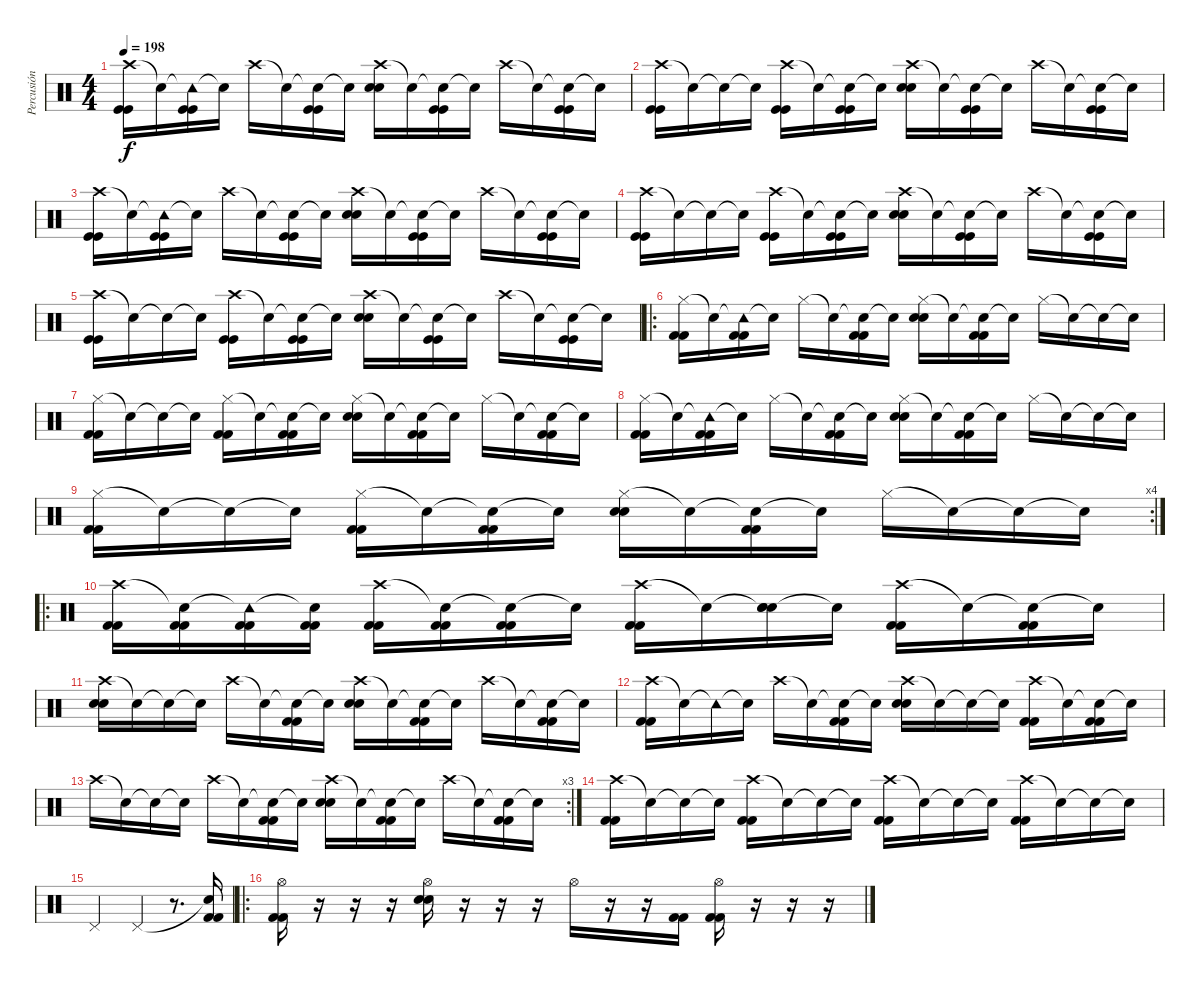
\track ("Percusión" "Percusión") {instrument percussion}
\staff {score}
\articulation defaults
\ts (4 4)
\tempo 198
\clef neutral
\ks c
("Crash high (hit)" "Kick (hit)" "Kick (hit)").16{dy f} "Snare (hit)"{t}.16 ("Tambourine (hit)"{t} "Kick (hit)" "Kick (hit)").16 "Snare (hit)"{t}.16 "Crash high (hit)".16 "Snare (hit)"{t}.16 ("Snare (hit)"{t} "Kick (hit)" "Kick (hit)").16 "Snare (hit)"{t}.16 ("Crash high (hit)" "Snare (hit) 2" "Snare (hit) 2").16 "Snare (hit)"{t}.16 ("Snare (hit)"{t} "Kick (hit)" "Kick (hit)").16 "Snare (hit)"{t}.16 "Crash high (hit)".16 "Snare (hit)"{t}.16 ("Snare (hit)"{t} "Kick (hit)" "Kick (hit)").16 "Snare (hit)"{t}.16 |
("Crash high (hit)" "Kick (hit)" "Kick (hit)").16 "Snare (hit)"{t}.16 "Snare (hit)"{t}.16 "Snare (hit)"{t}.16 ("Crash high (hit)" "Kick (hit)" "Kick (hit)").16 "Snare (hit)"{t}.16 ("Snare (hit)"{t} "Kick (hit)" "Kick (hit)").16 "Snare (hit)"{t}.16 ("Crash high (hit)" "Snare (hit) 2" "Snare (hit) 2").16 "Snare (hit)"{t}.16 ("Snare (hit)"{t} "Kick (hit)" "Kick (hit)").16 "Snare (hit)"{t}.16 "Crash high (hit)".16 "Snare (hit)"{t}.16 ("Snare (hit)"{t} "Kick (hit)" "Kick (hit)").16 "Snare (hit)"{t}.16 |
("Crash high (hit)" "Kick (hit)" "Kick (hit)").16 "Snare (hit)"{t}.16 ("Tambourine (hit)"{t} "Kick (hit)" "Kick (hit)").16 "Snare (hit)"{t}.16 "Crash high (hit)".16 "Snare (hit)"{t}.16 ("Snare (hit)"{t} "Kick (hit)" "Kick (hit)").16 "Snare (hit)"{t}.16 ("Crash high (hit)" "Snare (hit) 2" "Snare (hit) 2").16 "Snare (hit)"{t}.16 ("Snare (hit)"{t} "Kick (hit)" "Kick (hit)").16 "Snare (hit)"{t}.16 "Crash high (hit)".16 "Snare (hit)"{t}.16 ("Snare (hit)"{t} "Kick (hit)" "Kick (hit)").16 "Snare (hit)"{t}.16 |
("Crash high (hit)" "Kick (hit)" "Kick (hit)").16 "Snare (hit)"{t}.16 "Snare (hit)"{t}.16 "Snare (hit)"{t}.16 ("Crash high (hit)" "Kick (hit)" "Kick (hit)").16 "Snare (hit)"{t}.16 ("Snare (hit)"{t} "Kick (hit)" "Kick (hit)").16 "Snare (hit)"{t}.16 ("Crash high (hit)" "Snare (hit) 2" "Snare (hit) 2").16 "Snare (hit)"{t}.16 ("Snare (hit)"{t} "Kick (hit)" "Kick (hit)").16 "Snare (hit)"{t}.16 "Crash high (hit)".16 "Snare (hit)"{t}.16 ("Snare (hit)"{t} "Kick (hit)" "Kick (hit)").16 "Snare (hit)"{t}.16 |
("Crash high (hit)" "Kick (hit)" "Kick (hit)").16 "Snare (hit)"{t}.16 "Snare (hit)"{t}.16 "Snare (hit)"{t}.16 ("Crash high (hit)" "Kick (hit)" "Kick (hit)").16 "Snare (hit)"{t}.16 ("Snare (hit)"{t} "Kick (hit)" "Kick (hit)").16 "Snare (hit)"{t}.16 ("Crash high (hit)" "Snare (hit) 2" "Snare (hit) 2").16 "Snare (hit)"{t}.16 ("Snare (hit)"{t} "Kick (hit)" "Kick (hit)").16 "Snare (hit)"{t}.16 "Crash high (hit)".16 "Snare (hit)"{t}.16 ("Snare (hit)"{t} "Kick (hit)" "Kick (hit)").16 "Snare (hit)"{t}.16 |
\ro
("Hi-Hat (closed)" "Kick (hit) 2" "Kick (hit) 2").16 "Snare (hit)"{t}.16 ("Tambourine (hit)"{t} "Kick (hit) 2" "Kick (hit) 2").16 "Snare (hit)"{t}.16 "Hi-Hat (closed)".16 "Snare (hit)"{t}.16 ("Snare (hit)"{t} "Kick (hit) 2" "Kick (hit) 2").16 "Snare (hit)"{t}.16 ("Hi-Hat (closed)" "Electric Snare (hit)" "Electric Snare (hit)").16 "Snare (hit)"{t}.16 ("Snare (hit)"{t} "Kick (hit) 2" "Kick (hit) 2").16 "Snare (hit)"{t}.16 "Hi-Hat (closed)".16 "Snare (hit)"{t}.16 "Snare (hit)"{t}.16 "Snare (hit)"{t}.16 |
("Hi-Hat (closed)" "Kick (hit) 2" "Kick (hit) 2").16 "Snare (hit)"{t}.16 "Snare (hit)"{t}.16 "Snare (hit)"{t}.16 ("Hi-Hat (closed)" "Kick (hit) 2" "Kick (hit) 2").16 "Snare (hit)"{t}.16 ("Snare (hit)"{t} "Kick (hit) 2" "Kick (hit) 2").16 "Snare (hit)"{t}.16 ("Hi-Hat (closed)" "Electric Snare (hit)" "Electric Snare (hit)").16 "Snare (hit)"{t}.16 ("Snare (hit)"{t} "Kick (hit) 2" "Kick (hit) 2").16 "Snare (hit)"{t}.16 "Hi-Hat (closed)".16 "Snare (hit)"{t}.16 ("Snare (hit)"{t} "Kick (hit) 2" "Kick (hit) 2").16 "Snare (hit)"{t}.16 |
("Hi-Hat (closed)" "Kick (hit) 2" "Kick (hit) 2").16 "Snare (hit)"{t}.16 ("Tambourine (hit)"{t} "Kick (hit) 2" "Kick (hit) 2").16 "Snare (hit)"{t}.16 "Hi-Hat (closed)".16 "Snare (hit)"{t}.16 ("Snare (hit)"{t} "Kick (hit) 2" "Kick (hit) 2").16 "Snare (hit)"{t}.16 ("Hi-Hat (closed)" "Electric Snare (hit)" "Electric Snare (hit)").16 "Snare (hit)"{t}.16 ("Snare (hit)"{t} "Kick (hit) 2" "Kick (hit) 2").16 "Snare (hit)"{t}.16 "Hi-Hat (closed)".16 "Snare (hit)"{t}.16 "Snare (hit)"{t}.16 "Snare (hit)"{t}.16 |
\rc 4
("Hi-Hat (closed)" "Kick (hit) 2" "Kick (hit) 2").16 "Snare (hit)"{t}.16 "Snare (hit)"{t}.16 "Snare (hit)"{t}.16 ("Hi-Hat (closed)" "Kick (hit) 2" "Kick (hit) 2").16 "Snare (hit)"{t}.16 ("Snare (hit)"{t} "Kick (hit) 2" "Kick (hit) 2").16 "Snare (hit)"{t}.16 ("Hi-Hat (closed)" "Electric Snare (hit)" "Electric Snare (hit)").16 "Snare (hit)"{t}.16 ("Snare (hit)"{t} "Kick (hit) 2" "Kick (hit) 2").16 "Snare (hit)"{t}.16 "Hi-Hat (closed)".16 "Snare (hit)"{t}.16 "Snare (hit)"{t}.16 "Snare (hit)"{t}.16 |
\ro
("Crash high (hit)" "Kick (hit) 2" "Kick (hit) 2").16 ("Snare (hit)"{t} "Kick (hit) 2" "Kick (hit) 2").16 ("Tambourine (hit)"{t} "Kick (hit) 2" "Kick (hit) 2").16 ("Snare (hit)"{t} "Kick (hit) 2" "Kick (hit) 2").16 ("Crash high (hit)" "Kick (hit) 2" "Kick (hit) 2").16 ("Snare (hit)"{t} "Kick (hit) 2" "Kick (hit) 2").16 ("Snare (hit)"{t} "Kick (hit) 2" "Kick (hit) 2").16 "Snare (hit)"{t}.16 ("Crash high (hit)" "Kick (hit) 2" "Kick (hit) 2").16 "Snare (hit)"{t}.16 ("Snare (hit)"{t} "Electric Snare (hit)" "Electric Snare (hit)").16 "Snare (hit)"{t}.16 ("Crash high (hit)" "Kick (hit) 2" "Kick (hit) 2").16 "Snare (hit)"{t}.16 ("Snare (hit)"{t} "Kick (hit) 2" "Kick (hit) 2").16 "Snare (hit)"{t}.16 |
("Crash high (hit)" "Electric Snare (hit)" "Electric Snare (hit)").16 "Snare (hit)"{t}.16 "Snare (hit)"{t}.16 "Snare (hit)"{t}.16 "Crash high (hit)".16 "Snare (hit)"{t}.16 ("Snare (hit)"{t} "Kick (hit) 2" "Kick (hit) 2").16 "Snare (hit)"{t}.16 ("Crash high (hit)" "Electric Snare (hit)" "Electric Snare (hit)").16 "Snare (hit)"{t}.16 ("Snare (hit)"{t} "Kick (hit) 2" "Kick (hit) 2").16 "Snare (hit)"{t}.16 "Crash high (hit)".16 "Snare (hit)"{t}.16 ("Snare (hit)"{t} "Kick (hit) 2" "Kick (hit) 2").16 "Snare (hit)"{t}.16 |
("Crash high (hit)" "Kick (hit) 2" "Kick (hit) 2").16 "Snare (hit)"{t}.16 "Tambourine (hit)"{t}.16 "Snare (hit)"{t}.16 "Crash high (hit)".16 "Snare (hit)"{t}.16 ("Snare (hit)"{t} "Kick (hit) 2" "Kick (hit) 2").16 "Snare (hit)"{t}.16 ("Crash high (hit)" "Electric Snare (hit)" "Electric Snare (hit)").16 "Snare (hit)"{t}.16 "Snare (hit)"{t}.16 "Snare (hit)"{t}.16 ("Crash high (hit)" "Kick (hit) 2" "Kick (hit) 2").16 "Snare (hit)"{t}.16 ("Snare (hit)"{t} "Kick (hit) 2" "Kick (hit) 2").16 "Snare (hit)"{t}.16 |
\rc 3 "Crash high (hit)".16 "Snare (hit)"{t}.16 "Snare (hit)"{t}.16 "Snare (hit)"{t}.16 "Crash high (hit)".16 "Snare (hit)"{t}.16
("Snare (hit)"{t} "Kick (hit) 2" "Kick (hit) 2").16 "Snare (hit)"{t}.16 ("Crash high (hit)" "Electric Snare (hit)" "Electric Snare (hit)").16 "Snare (hit)"{t}.16 ("Snare (hit)"{t} "Kick (hit) 2" "Kick (hit) 2").16 "Snare (hit)"{t}.16 "Crash high (hit)".16 "Snare (hit)"{t}.16 ("Snare (hit)"{t} "Kick (hit) 2" "Kick (hit) 2").16 "Snare (hit)"{t}.16 |
("Crash high (hit)" "Kick (hit) 2" "Kick (hit) 2").16 "Snare (hit)"{t}.16 "Snare (hit)"{t}.16 "Snare (hit)"{t}.16 ("Crash high (hit)" "Kick (hit) 2" "Kick (hit) 2").16 "Snare (hit)"{t}.16 "Snare (hit)"{t}.16 "Snare (hit)"{t}.16 ("Crash high (hit)" "Kick (hit) 2" "Kick (hit) 2").16 "Snare (hit)"{t}.16 "Snare (hit)"{t}.16 "Snare (hit)"{t}.16 ("Crash high (hit)" "Kick (hit) 2" "Kick (hit) 2").16 "Snare (hit)"{t}.16 "Snare (hit)"{t}.16 "Snare (hit)"{t}.16 |
"Pedal Hi-Hat (hit)".2 "Pedal Hi-Hat (hit)".4 r.8{d} ("Snare (hit)"{t} "Kick (hit) 2" "Kick (hit) 2").16 |
\ro
("Hi-Hat (open)" "Kick (hit) 2" "Kick (hit) 2").16 r.16 r.16 r.16 ("Hi-Hat (open)" "Electric Snare (hit)" "Electric Snare (hit)").16 r.16 r.16 r.16 "Hi-Hat (open)".16 r.16 r.16 ("Kick (hit) 2" "Kick (hit) 2").16 ("Hi-Hat (open)" "Kick (hit) 2" "Kick (hit) 2").16 r.16 r.16 r.16
